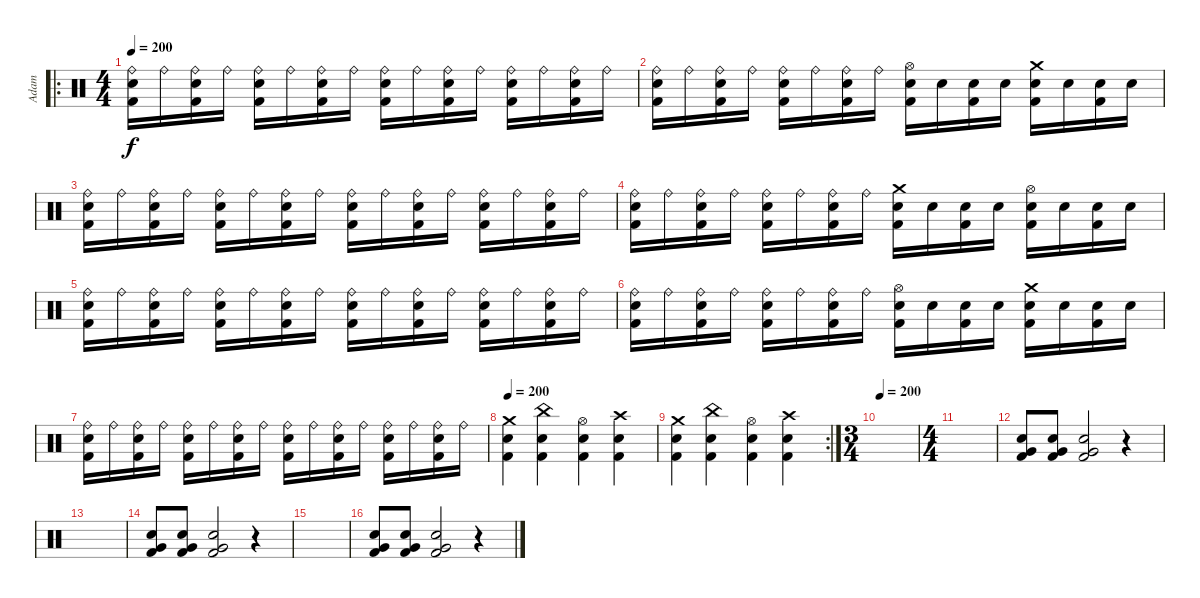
\track ("Adam" "Adam") {instrument percussion}
\staff {score}
\articulation defaults
\ro
\ts (4 4)
\tempo 200
\clef neutral
\ks c
("Ride (bell)" "Electric Snare (hit)" "Kick (hit) 2").16{dy f} "Ride (bell)".16 ("Ride (bell)" "Electric Snare (hit)" "Kick (hit) 2").16 "Ride (bell)".16 ("Ride (bell)" "Electric Snare (hit)" "Kick (hit) 2").16 "Ride (bell)".16 ("Ride (bell)" "Electric Snare (hit)" "Kick (hit) 2").16 "Ride (bell)".16 ("Ride (bell)" "Electric Snare (hit)" "Kick (hit) 2").16 "Ride (bell)".16 ("Ride (bell)" "Electric Snare (hit)" "Kick (hit) 2").16 "Ride (bell)".16 ("Ride (bell)" "Electric Snare (hit)" "Kick (hit) 2").16 "Ride (bell)".16 ("Ride (bell)" "Electric Snare (hit)" "Kick (hit) 2").16 "Ride (bell)".16 |
("Ride (bell)" "Electric Snare (hit)" "Kick (hit) 2").16 "Ride (bell)".16 ("Ride (bell)" "Electric Snare (hit)" "Kick (hit) 2").16 "Ride (bell)".16 ("Ride (bell)" "Electric Snare (hit)" "Kick (hit) 2").16 "Ride (bell)".16 ("Ride (bell)" "Electric Snare (hit)" "Kick (hit) 2").16 "Ride (bell)".16 ("Hi-Hat (open)" "Electric Snare (hit)" "Kick (hit) 2").16 "Electric Snare (hit)".16 ("Electric Snare (hit)" "Kick (hit) 2").16 "Electric Snare (hit)".16 ("Crash medium (hit)" "Electric Snare (hit)" "Kick (hit) 2").16 "Electric Snare (hit)".16 ("Electric Snare (hit)" "Kick (hit) 2").16 "Electric Snare (hit)".16 |
("Ride (bell)" "Electric Snare (hit)" "Kick (hit) 2").16 "Ride (bell)".16 ("Ride (bell)" "Electric Snare (hit)" "Kick (hit) 2").16 "Ride (bell)".16 ("Ride (bell)" "Electric Snare (hit)" "Kick (hit) 2").16 "Ride (bell)".16 ("Ride (bell)" "Electric Snare (hit)" "Kick (hit) 2").16 "Ride (bell)".16 ("Ride (bell)" "Electric Snare (hit)" "Kick (hit) 2").16 "Ride (bell)".16 ("Ride (bell)" "Electric Snare (hit)" "Kick (hit) 2").16 "Ride (bell)".16 ("Ride (bell)" "Electric Snare (hit)" "Kick (hit) 2").16 "Ride (bell)".16 ("Ride (bell)" "Electric Snare (hit)" "Kick (hit) 2").16 "Ride (bell)".16 |
("Ride (bell)" "Electric Snare (hit)" "Kick (hit) 2").16 "Ride (bell)".16 ("Ride (bell)" "Electric Snare (hit)" "Kick (hit) 2").16 "Ride (bell)".16 ("Ride (bell)" "Electric Snare (hit)" "Kick (hit) 2").16 "Ride (bell)".16 ("Ride (bell)" "Electric Snare (hit)" "Kick (hit) 2").16 "Ride (bell)".16 ("Crash medium (hit)" "Electric Snare (hit)" "Kick (hit) 2").16 "Electric Snare (hit)".16 ("Electric Snare (hit)" "Kick (hit) 2").16 "Electric Snare (hit)".16 ("Hi-Hat (open)" "Electric Snare (hit)" "Kick (hit) 2").16 "Electric Snare (hit)".16 ("Electric Snare (hit)" "Kick (hit) 2").16 "Electric Snare (hit)".16 |
("Ride (bell)" "Electric Snare (hit)" "Kick (hit) 2").16 "Ride (bell)".16 ("Ride (bell)" "Electric Snare (hit)" "Kick (hit) 2").16 "Ride (bell)".16 ("Ride (bell)" "Electric Snare (hit)" "Kick (hit) 2").16 "Ride (bell)".16 ("Ride (bell)" "Electric Snare (hit)" "Kick (hit) 2").16 "Ride (bell)".16 ("Ride (bell)" "Electric Snare (hit)" "Kick (hit) 2").16 "Ride (bell)".16 ("Ride (bell)" "Electric Snare (hit)" "Kick (hit) 2").16 "Ride (bell)".16 ("Ride (bell)" "Electric Snare (hit)" "Kick (hit) 2").16 "Ride (bell)".16 ("Ride (bell)" "Electric Snare (hit)" "Kick (hit) 2").16 "Ride (bell)".16 |
("Ride (bell)" "Electric Snare (hit)" "Kick (hit) 2").16 "Ride (bell)".16 ("Ride (bell)" "Electric Snare (hit)" "Kick (hit) 2").16 "Ride (bell)".16 ("Ride (bell)" "Electric Snare (hit)" "Kick (hit) 2").16 "Ride (bell)".16 ("Ride (bell)" "Electric Snare (hit)" "Kick (hit) 2").16 "Ride (bell)".16 ("Hi-Hat (open)" "Electric Snare (hit)" "Kick (hit) 2").16 "Electric Snare (hit)".16 ("Electric Snare (hit)" "Kick (hit) 2").16 "Electric Snare (hit)".16 ("Crash medium (hit)" "Electric Snare (hit)" "Kick (hit) 2").16 "Electric Snare (hit)".16 ("Electric Snare (hit)" "Kick (hit) 2").16 "Electric Snare (hit)".16 |
("Ride (bell)" "Electric Snare (hit)" "Kick (hit) 2").16 "Ride (bell)".16 ("Ride (bell)" "Electric Snare (hit)" "Kick (hit) 2").16 "Ride (bell)".16 ("Ride (bell)" "Electric Snare (hit)" "Kick (hit) 2").16 "Ride (bell)".16 ("Ride (bell)" "Electric Snare (hit)" "Kick (hit) 2").16 "Ride (bell)".16 ("Ride (bell)" "Electric Snare (hit)" "Kick (hit) 2").16 "Ride (bell)".16 ("Ride (bell)" "Electric Snare (hit)" "Kick (hit) 2").16 "Ride (bell)".16 ("Ride (bell)" "Electric Snare (hit)" "Kick (hit) 2").16 "Ride (bell)".16 ("Ride (bell)" "Electric Snare (hit)" "Kick (hit) 2").16 "Ride (bell)".16 |
\tempo 200
("Crash medium (hit)" "Electric Snare (hit)" "Kick (hit) 2").4 ("China (hit)" "Electric Snare (hit)" "Kick (hit) 2").4 ("Hi-Hat (open)" "Electric Snare (hit)" "Kick (hit) 2").4 ("Crash high (hit)" "Electric Snare (hit)" "Kick (hit) 2").4 |
\rc 2
("Crash medium (hit)" "Electric Snare (hit)" "Kick (hit) 2").4 ("China (hit)" "Electric Snare (hit)" "Kick (hit) 2").4 ("Hi-Hat (open)" "Electric Snare (hit)" "Kick (hit) 2").4 ("Crash high (hit)" "Electric Snare (hit)" "Kick (hit) 2").4 |
\ts (3 4)
\tempo 200
|
\ts (4 4)
|
("Very Low Tom (hit)" "Snare (hit) 2" "Kick (hit) 2").8 ("Very Low Tom (hit)" "Snare (hit) 2" "Kick (hit) 2").8 ("Very Low Tom (hit)" "Snare (hit) 2" "Kick (hit) 2").2 r.4 |
|
("Very Low Tom (hit)" "Snare (hit) 2" "Kick (hit) 2").8 ("Very Low Tom (hit)" "Snare (hit) 2" "Kick (hit) 2").8 ("Very Low Tom (hit)" "Snare (hit) 2" "Kick (hit) 2").2 r.4 |
|
("Very Low Tom (hit)" "Snare (hit) 2" "Kick (hit) 2").8 ("Very Low Tom (hit)" "Snare (hit) 2" "Kick (hit) 2").8 ("Very Low Tom (hit)" "Snare (hit) 2" "Kick (hit) 2").2 r.4
